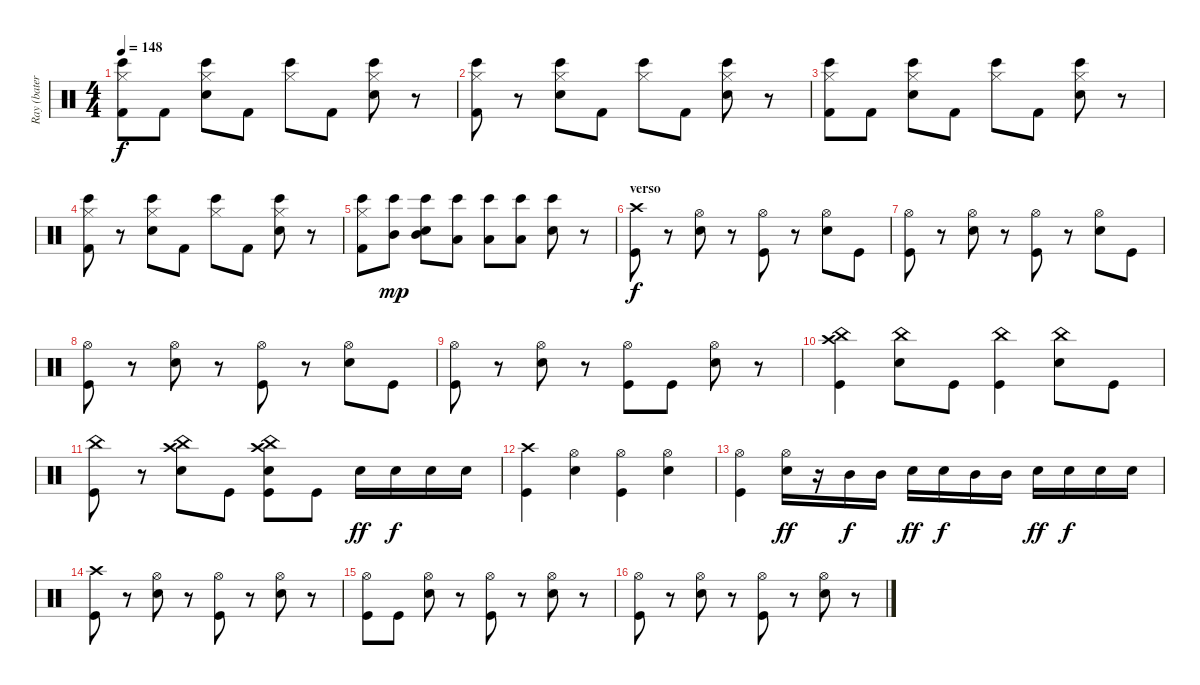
\track ("Ray (batería)" "Ray (bater") {instrument percussion}
\staff {score}
\articulation defaults
\ts (4 4)
\tempo 148
\clef neutral
\ks c
("Hi-Hat (closed)" "Bongo High (hit)" "Kick (hit) 2").8{dy f} "Kick (hit) 2".8 ("Hi-Hat (closed)" "Bongo High (hit)" "Hand Clap (hit)").8 "Kick (hit) 2".8 ("Hi-Hat (closed)" "Bongo High (hit)").8 "Kick (hit) 2".8 ("Hi-Hat (closed)" "Bongo High (hit)" "Hand Clap (hit)").8 r.8 |
("Hi-Hat (closed)" "Bongo High (hit)" "Kick (hit) 2").8 r.8 ("Hi-Hat (closed)" "Bongo High (hit)" "Hand Clap (hit)").8 "Kick (hit) 2".8 ("Hi-Hat (closed)" "Bongo High (hit)").8 "Kick (hit) 2".8 ("Hi-Hat (closed)" "Bongo High (hit)" "Hand Clap (hit)").8 r.8 |
("Hi-Hat (closed)" "Bongo High (hit)" "Kick (hit) 2").8 "Kick (hit) 2".8 ("Hi-Hat (closed)" "Bongo High (hit)" "Hand Clap (hit)").8 "Kick (hit) 2".8 ("Hi-Hat (closed)" "Bongo High (hit)").8 "Kick (hit) 2".8 ("Hi-Hat (closed)" "Bongo High (hit)" "Hand Clap (hit)").8 r.8 |
("Hi-Hat (closed)" "Bongo High (hit)" "Kick (hit) 2").8 r.8 ("Hi-Hat (closed)" "Bongo High (hit)" "Hand Clap (hit)").8 "Kick (hit) 2".8 ("Hi-Hat (closed)" "Bongo High (hit)").8 "Kick (hit) 2".8 ("Hi-Hat (closed)" "Bongo High (hit)" "Hand Clap (hit)").8 r.8 |
("Hi-Hat (closed)" "Bongo High (hit)" "Kick (hit) 2").8{volume 14} ("Bongo High (hit)" "Mid Tom (hit)").8{dy mp} ("Bongo High (hit)" "Mid Tom (hit)" "Hand Clap (hit)").8 ("Bongo High (hit)" "Low Tom (hit)").8 ("Bongo High (hit)" "Low Tom (hit)").8 ("Bongo High (hit)" "Low Floor Tom (hit)").8 ("Bongo High (hit)" "Hand Clap (hit)").8 r.8 |
\section ("" "verso")
("Crash high (hit)" "Kick (hit)").8{dy f volume 15} r.8 ("Hi-Hat (open)" "Snare (hit) 2").8 r.8 ("Hi-Hat (open)" "Kick (hit)").8 r.8 ("Hi-Hat (open)" "Snare (hit) 2").8 "Kick (hit)".8 |
("Hi-Hat (open)" "Kick (hit)").8 r.8 ("Hi-Hat (open)" "Snare (hit) 2").8 r.8 ("Hi-Hat (open)" "Kick (hit)").8 r.8 ("Hi-Hat (open)" "Snare (hit) 2").8 "Kick (hit)".8 |
("Hi-Hat (open)" "Kick (hit)").8 r.8 ("Hi-Hat (open)" "Snare (hit) 2").8 r.8 ("Hi-Hat (open)" "Kick (hit)").8 r.8 ("Hi-Hat (open)" "Snare (hit) 2").8 "Kick (hit)".8 |
("Hi-Hat (open)" "Kick (hit)").8 r.8 ("Hi-Hat (open)" "Snare (hit) 2").8 r.8 ("Hi-Hat (open)" "Kick (hit)").8 "Kick (hit)".8 ("Hi-Hat (open)" "Snare (hit) 2").8 r.8 |
("China (hit)" "Crash high (hit)" "Kick (hit)").4 ("China (hit)" "Snare (hit) 2").8 "Kick (hit)".8 ("China (hit)" "Kick (hit)").4 ("China (hit)" "Snare (hit) 2").8 "Kick (hit)".8 |
("China (hit)" "Kick (hit)").8 r.8 ("China (hit)" "Crash high (hit)" "Snare (hit) 2").8 "Kick (hit)".8 ("China (hit)" "Crash high (hit)" "Snare (hit) 2" "Kick (hit)").8 "Kick (hit)".8 "Snare (hit) 2".16{dy ff} "Snare (hit) 2".16{dy f} "Snare (hit) 2".16 "Snare (hit) 2".16 |
("Crash high (hit)" "Kick (hit)").4 ("Hi-Hat (open)" "Snare (hit) 2").4 ("Hi-Hat (open)" "Kick (hit)").4 ("Hi-Hat (open)" "Snare (hit) 2").4 |
("Hi-Hat (open)" "Kick (hit)").4 ("Hi-Hat (open)" "Snare (hit) 2").16{dy ff} r.16 "Mid Tom (hit)".16{dy f} "Mid Tom (hit)".16 "Snare (hit) 2".16{dy ff} "Snare (hit) 2".16{dy f} "Mid Tom (hit)".16 "Mid Tom (hit)".16 "Snare (hit) 2".16{dy ff} "Snare (hit) 2".16{dy f} "Snare (hit) 2".16 "Snare (hit) 2".16 |
("Crash high (hit)" "Kick (hit)").8 r.8 ("Hi-Hat (open)" "Snare (hit) 2").8 r.8 ("Hi-Hat (open)" "Kick (hit)").8 r.8 ("Hi-Hat (open)" "Snare (hit) 2").8 r.8 |
("Hi-Hat (open)" "Kick (hit)").8 "Kick (hit)".8 ("Hi-Hat (open)" "Snare (hit) 2").8 r.8 ("Hi-Hat (open)" "Kick (hit)").8 r.8 ("Hi-Hat (open)" "Snare (hit) 2").8 r.8 |
("Hi-Hat (open)" "Kick (hit)").8 r.8 ("Hi-Hat (open)" "Snare (hit) 2").8 r.8 ("Hi-Hat (open)" "Kick (hit)").8 r.8 ("Hi-Hat (open)" "Snare (hit) 2").8 r.8
